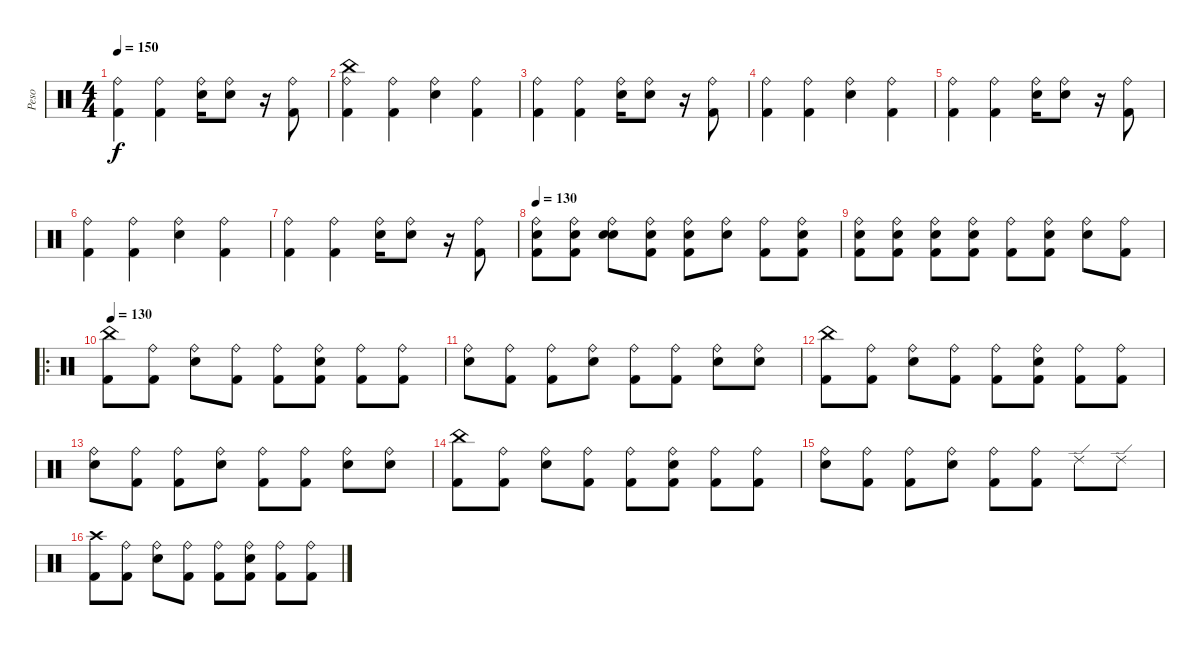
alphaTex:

\track ("Peso" "Peso") {instrument percussion}
\staff {score}
\articulation defaults
\ts (4 4)
\tempo 150
\clef neutral
\ks c
("Ride (bell)" "Kick (hit) 2").4{dy f} ("Ride (bell)" "Kick (hit) 2").4 ("Ride (bell)" "Snare (hit) 2").16 ("Ride (bell)" "Snare (hit) 2").8 r.16 ("Ride (bell)" "Kick (hit) 2").8 |
("China (hit)" "Ride (bell)" "Kick (hit) 2").4 ("Ride (bell)" "Kick (hit) 2").4 ("Ride (bell)" "Snare (hit) 2").4 ("Ride (bell)" "Kick (hit) 2").4 |
("Ride (bell)" "Kick (hit) 2").4 ("Ride (bell)" "Kick (hit) 2").4 ("Ride (bell)" "Snare (hit) 2").16 ("Ride (bell)" "Snare (hit) 2").8 r.16 ("Ride (bell)" "Kick (hit) 2").8 |
("Ride (bell)" "Kick (hit) 2").4 ("Ride (bell)" "Kick (hit) 2").4 ("Ride (bell)" "Snare (hit) 2").4 ("Ride (bell)" "Kick (hit) 2").4 |
("Ride (bell)" "Kick (hit) 2").4 ("Ride (bell)" "Kick (hit) 2").4 ("Ride (bell)" "Snare (hit) 2").16 ("Ride (bell)" "Snare (hit) 2").8 r.16 ("Ride (bell)" "Kick (hit) 2").8 |
("Ride (bell)" "Kick (hit) 2").4 ("Ride (bell)" "Kick (hit) 2").4 ("Ride (bell)" "Snare (hit) 2").4 ("Ride (bell)" "Kick (hit) 2").4 |
("Ride (bell)" "Kick (hit) 2").4 ("Ride (bell)" "Kick (hit) 2").4 ("Ride (bell)" "Snare (hit) 2").16 ("Ride (bell)" "Snare (hit) 2").8 r.16 ("Ride (bell)" "Kick (hit) 2").8 |
\tempo 130
("Ride (bell)" "Snare (hit) 2" "Kick (hit) 2").8 ("Ride (bell)" "Snare (hit) 2" "Kick (hit) 2").8 ("Ride (bell)" "Snare (hit) 2" "Snare (hit) 2").8 ("Ride (bell)" "Snare (hit) 2" "Kick (hit) 2").8 ("Ride (bell)" "Snare (hit) 2" "Kick (hit) 2").8 ("Ride (bell)" "Snare (hit) 2").8 ("Ride (bell)" "Kick (hit) 2").8 ("Ride (bell)" "Snare (hit) 2" "Kick (hit) 2").8 |
("Ride (bell)" "Snare (hit) 2" "Kick (hit) 2").8 ("Ride (bell)" "Snare (hit) 2" "Kick (hit) 2").8 ("Ride (bell)" "Snare (hit) 2" "Kick (hit) 2").8 ("Ride (bell)" "Snare (hit) 2" "Kick (hit) 2").8 ("Ride (bell)" "Kick (hit) 2").8 ("Ride (bell)" "Snare (hit) 2" "Kick (hit) 2").8 ("Ride (bell)" "Snare (hit) 2").8 ("Ride (bell)" "Kick (hit) 2").8 |
\ro
\tempo 130
("China (hit)" "Kick (hit) 2").8 ("Ride (bell)" "Kick (hit) 2").8 ("Ride (bell)" "Snare (hit) 2").8 ("Ride (bell)" "Kick (hit) 2").8 ("Ride (bell)" "Kick (hit) 2").8 ("Ride (bell)" "Snare (hit) 2" "Kick (hit) 2").8 ("Ride (bell)" "Kick (hit) 2").8 ("Ride (bell)" "Kick (hit) 2").8 |
("Ride (bell)" "Snare (hit) 2").8 ("Ride (bell)" "Kick (hit) 2").8 ("Ride (bell)" "Kick (hit) 2").8 ("Ride (bell)" "Snare (hit) 2").8 ("Ride (bell)" "Kick (hit) 2").8 ("Ride (bell)" "Kick (hit) 2").8 ("Ride (bell)" "Snare (hit) 2").8 ("Ride (bell)" "Snare (hit) 2").8 |
("China (hit)" "Kick (hit) 2").8 ("Ride (bell)" "Kick (hit) 2").8 ("Ride (bell)" "Snare (hit) 2").8 ("Ride (bell)" "Kick (hit) 2").8 ("Ride (bell)" "Kick (hit) 2").8 ("Ride (bell)" "Snare (hit) 2" "Kick (hit) 2").8 ("Ride (bell)" "Kick (hit) 2").8 ("Ride (bell)" "Kick (hit) 2").8 |
("Ride (bell)" "Snare (hit) 2").8 ("Ride (bell)" "Kick (hit) 2").8 ("Ride (bell)" "Kick (hit) 2").8 ("Ride (bell)" "Snare (hit) 2").8 ("Ride (bell)" "Kick (hit) 2").8 ("Ride (bell)" "Kick (hit) 2").8 ("Ride (bell)" "Snare (hit) 2").8 ("Ride (bell)" "Snare (hit) 2").8 |
("China (hit)" "Kick (hit) 2").8 ("Ride (bell)" "Kick (hit) 2").8 ("Ride (bell)" "Snare (hit) 2").8 ("Ride (bell)" "Kick (hit) 2").8 ("Ride (bell)" "Kick (hit) 2").8 ("Ride (bell)" "Snare (hit) 2" "Kick (hit) 2").8 ("Ride (bell)" "Kick (hit) 2").8 ("Ride (bell)" "Kick (hit) 2").8 |
("Ride (bell)" "Snare (hit) 2").8 ("Ride (bell)" "Kick (hit) 2").8 ("Ride (bell)" "Kick (hit) 2").8 ("Ride (bell)" "Snare (hit) 2").8 ("Ride (bell)" "Kick (hit) 2").8 ("Ride (bell)" "Kick (hit) 2").8 "Ride (edge) 2".8 "Ride (edge) 2".8 |
("Crash high (hit)" "Kick (hit) 2").8 ("Ride (bell)" "Kick (hit) 2").8 ("Ride (bell)" "Snare (hit) 2").8 ("Ride (bell)" "Kick (hit) 2").8 ("Ride (bell)" "Kick (hit) 2").8 ("Ride (bell)" "Snare (hit) 2" "Kick (hit) 2").8 ("Ride (bell)" "Kick (hit) 2").8 ("Ride (bell)" "Kick (hit) 2").8
